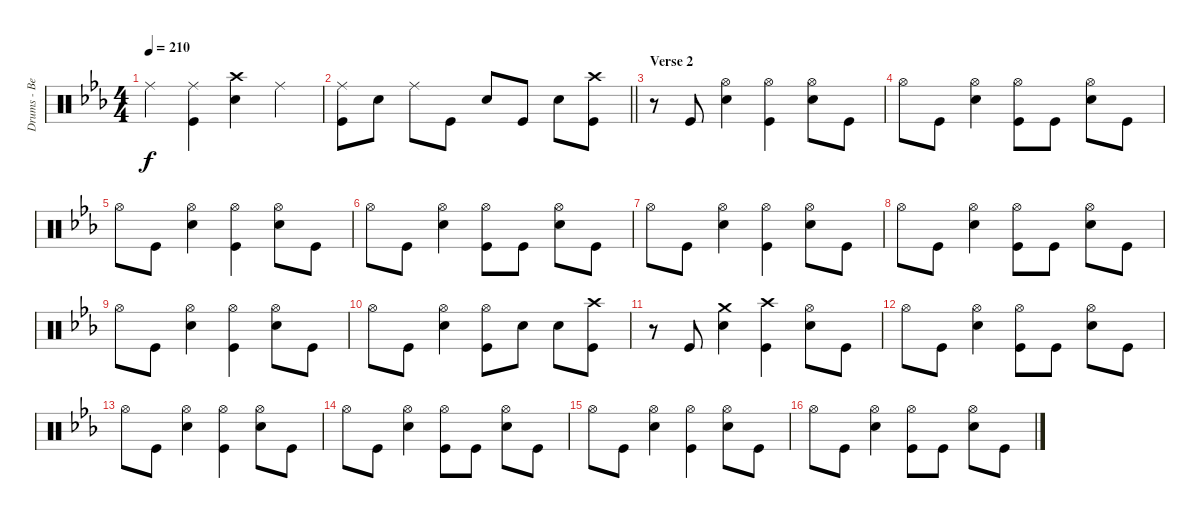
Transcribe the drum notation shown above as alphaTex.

\track ("Drums - Ben Johnston" "Drums - Be") {instrument percussion}
\staff {score}
\articulation defaults
\ts (4 4)
\tempo 210
\clef neutral
\ks cminor "Ride (middle)".4{dy f}
("Ride (middle)" "Kick (hit)").4 ("Crash high (hit)" "Snare (hit) 2").4 "Ride (middle)".4 |
\barLineRight lightlight
("Ride (middle)" "Kick (hit)").8 "Snare (hit) 2".8 "Ride (middle)".8 "Kick (hit)".8 "Snare (hit) 2".8 "Kick (hit)".8 "Snare (hit) 2".8 ("Crash high (hit)" "Kick (hit)").8 |
\section ("" "Verse 2")
r.8 "Kick (hit)".8 ("Hi-Hat (open)" "Snare (hit) 2").4 ("Hi-Hat (open)" "Kick (hit)").4 ("Hi-Hat (open)" "Snare (hit) 2").8 "Kick (hit)".8 |
"Hi-Hat (open)".8 "Kick (hit)".8 ("Hi-Hat (open)" "Snare (hit) 2").4 ("Hi-Hat (open)" "Kick (hit)").8 "Kick (hit)".8 ("Hi-Hat (open)" "Snare (hit) 2").8 "Kick (hit)".8 |
"Hi-Hat (open)".8 "Kick (hit)".8 ("Hi-Hat (open)" "Snare (hit) 2").4 ("Hi-Hat (open)" "Kick (hit)").4 ("Hi-Hat (open)" "Snare (hit) 2").8 "Kick (hit)".8 |
"Hi-Hat (open)".8 "Kick (hit)".8 ("Hi-Hat (open)" "Snare (hit) 2").4 ("Hi-Hat (open)" "Kick (hit)").8 "Kick (hit)".8 ("Hi-Hat (open)" "Snare (hit) 2").8 "Kick (hit)".8 |
"Hi-Hat (open)".8 "Kick (hit)".8 ("Hi-Hat (open)" "Snare (hit) 2").4 ("Hi-Hat (open)" "Kick (hit)").4 ("Hi-Hat (open)" "Snare (hit) 2").8 "Kick (hit)".8 |
"Hi-Hat (open)".8 "Kick (hit)".8 ("Hi-Hat (open)" "Snare (hit) 2").4 ("Hi-Hat (open)" "Kick (hit)").8 "Kick (hit)".8 ("Hi-Hat (open)" "Snare (hit) 2").8 "Kick (hit)".8 |
"Hi-Hat (open)".8 "Kick (hit)".8 ("Hi-Hat (open)" "Snare (hit) 2").4 ("Hi-Hat (open)" "Kick (hit)").4 ("Hi-Hat (open)" "Snare (hit) 2").8 "Kick (hit)".8 |
"Hi-Hat (open)".8 "Kick (hit)".8 ("Hi-Hat (open)" "Snare (hit) 2").4 ("Hi-Hat (open)" "Kick (hit)").8 "Snare (hit) 2".8 "Snare (hit) 2".8 ("Crash high (hit)" "Kick (hit)").8 |
r.8 "Kick (hit)".8 ("Crash medium (hit)" "Snare (hit) 2").4 ("Crash high (hit)" "Kick (hit)").4 ("Hi-Hat (open)" "Snare (hit) 2").8 "Kick (hit)".8 |
"Hi-Hat (open)".8 "Kick (hit)".8 ("Hi-Hat (open)" "Snare (hit) 2").4 ("Hi-Hat (open)" "Kick (hit)").8 "Kick (hit)".8 ("Hi-Hat (open)" "Snare (hit) 2").8 "Kick (hit)".8 |
"Hi-Hat (open)".8 "Kick (hit)".8 ("Hi-Hat (open)" "Snare (hit) 2").4 ("Hi-Hat (open)" "Kick (hit)").4 ("Hi-Hat (open)" "Snare (hit) 2").8 "Kick (hit)".8 |
"Hi-Hat (open)".8 "Kick (hit)".8 ("Hi-Hat (open)" "Snare (hit) 2").4 ("Hi-Hat (open)" "Kick (hit)").8 "Kick (hit)".8 ("Hi-Hat (open)" "Snare (hit) 2").8 "Kick (hit)".8 |
"Hi-Hat (open)".8 "Kick (hit)".8 ("Hi-Hat (open)" "Snare (hit) 2").4 ("Hi-Hat (open)" "Kick (hit)").4 ("Hi-Hat (open)" "Snare (hit) 2").8 "Kick (hit)".8 |
"Hi-Hat (open)".8 "Kick (hit)".8 ("Hi-Hat (open)" "Snare (hit) 2").4 ("Hi-Hat (open)" "Kick (hit)").8 "Kick (hit)".8 ("Hi-Hat (open)" "Snare (hit) 2").8 "Kick (hit)".8
